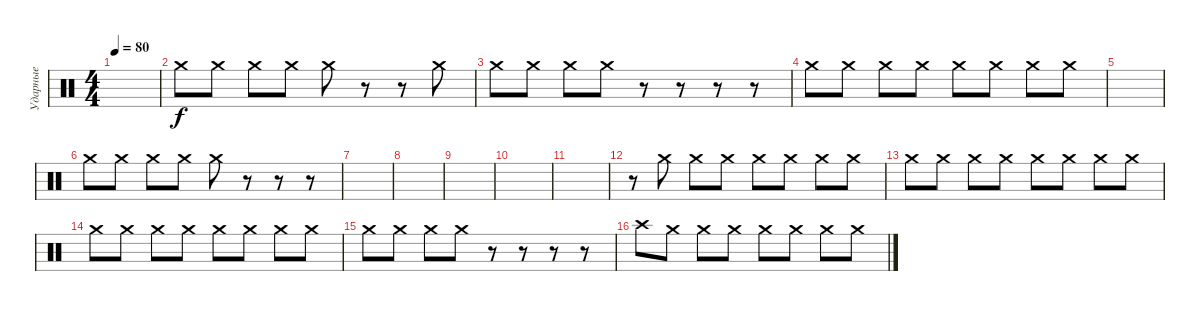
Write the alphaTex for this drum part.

\track ("Ударные" "Ударные") {instrument percussion}
\staff {score}
\articulation defaults
\ts (4 4)
\tempo 80
\clef neutral
\ks c
|
"Crash medium (hit)".8 "Crash medium (hit)".8 "Crash medium (hit)".8 "Crash medium (hit)".8 "Crash medium (hit)".8 r.8 r.8 "Crash medium (hit)".8 |
"Crash medium (hit)".8 "Crash medium (hit)".8 "Crash medium (hit)".8 "Crash medium (hit)".8 r.8 r.8 r.8 r.8 |
"Crash medium (hit)".8 "Crash medium (hit)".8 "Crash medium (hit)".8 "Crash medium (hit)".8 "Crash medium (hit)".8 "Crash medium (hit)".8 "Crash medium (hit)".8 "Crash medium (hit)".8 |
|
"Crash medium (hit)".8 "Crash medium (hit)".8 "Crash medium (hit)".8 "Crash medium (hit)".8 "Crash medium (hit)".8 r.8 r.8 r.8 |
|
|
|
|
|
r.8 "Crash medium (hit)".8 "Crash medium (hit)".8 "Crash medium (hit)".8 "Crash medium (hit)".8 "Crash medium (hit)".8 "Crash medium (hit)".8 "Crash medium (hit)".8 |
"Crash medium (hit)".8 "Crash medium (hit)".8 "Crash medium (hit)".8 "Crash medium (hit)".8 "Crash medium (hit)".8 "Crash medium (hit)".8 "Crash medium (hit)".8 "Crash medium (hit)".8 |
"Crash medium (hit)".8 "Crash medium (hit)".8 "Crash medium (hit)".8 "Crash medium (hit)".8 "Crash medium (hit)".8 "Crash medium (hit)".8 "Crash medium (hit)".8 "Crash medium (hit)".8 |
"Crash medium (hit)".8 "Crash medium (hit)".8 "Crash medium (hit)".8 "Crash medium (hit)".8 r.8 r.8 r.8 r.8 |
"Crash high (hit)".8 "Crash medium (hit)".8 "Crash medium (hit)".8 "Crash medium (hit)".8 "Crash medium (hit)".8 "Crash medium (hit)".8 "Crash medium (hit)".8 "Crash medium (hit)".8
